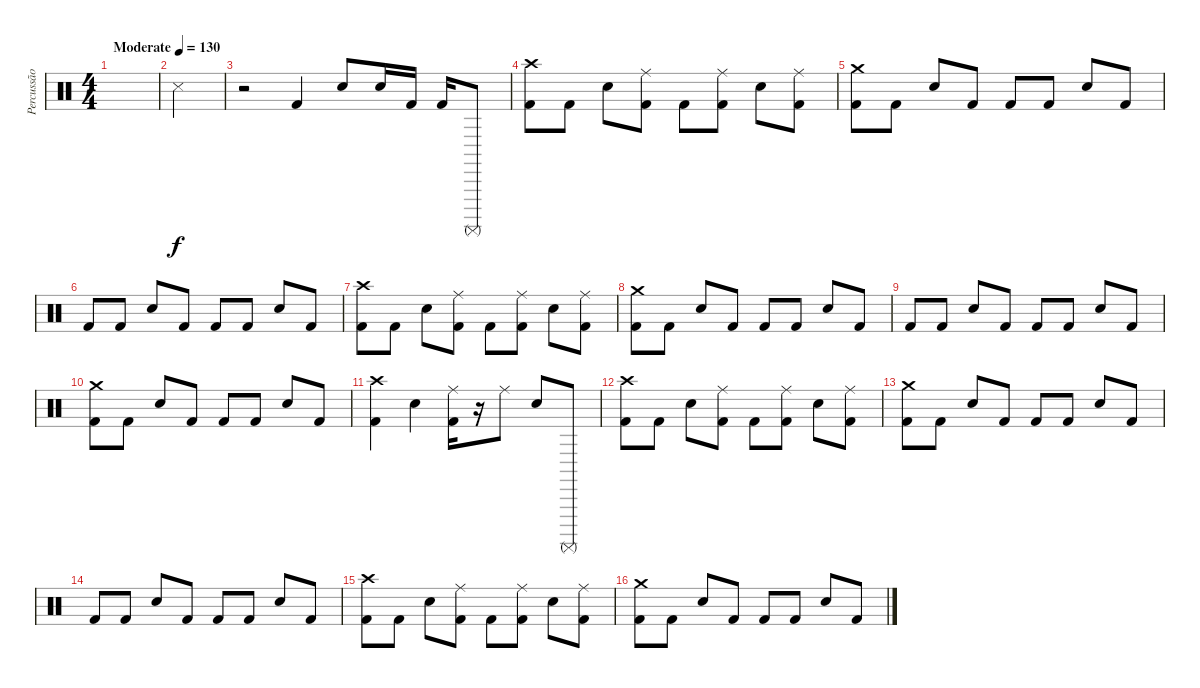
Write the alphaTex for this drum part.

\track ("Percussão" "Percussão") {instrument percussion}
\staff {score}
\articulation defaults
\ts (4 4)
\tempo (130 "Moderate")
\clef neutral
\ks c
|
"Snare (side stick) 3".4 |
r.2 "Kick (hit) 2".4 "Snare (hit) 2".8 "Snare (hit) 2".16 "Kick (hit) 2".16 "Kick (hit) 2".16 "Surdo (mute)".8 |
("Kick (hit) 2" "Crash high (hit)").8 "Kick (hit) 2".8 "Snare (hit) 2".8 ("Kick (hit) 2" "Ride (middle)").8 "Kick (hit) 2".8 ("Kick (hit) 2" "Ride (middle)").8 "Snare (hit) 2".8 ("Kick (hit) 2" "Ride (middle)").8 |
("Kick (hit) 2" "Crash medium (hit)").8 "Kick (hit) 2".8 "Snare (hit) 2".8 "Kick (hit) 2".8 "Kick (hit) 2".8 "Kick (hit) 2".8 "Snare (hit) 2".8 "Kick (hit) 2".8 |
"Kick (hit) 2".8 "Kick (hit) 2".8 "Snare (hit) 2".8 "Kick (hit) 2".8 "Kick (hit) 2".8 "Kick (hit) 2".8 "Snare (hit) 2".8 "Kick (hit) 2".8 |
("Kick (hit) 2" "Crash high (hit)").8 "Kick (hit) 2".8 "Snare (hit) 2".8 ("Kick (hit) 2" "Ride (middle)").8 "Kick (hit) 2".8 ("Kick (hit) 2" "Ride (middle)").8 "Snare (hit) 2".8 ("Kick (hit) 2" "Ride (middle)").8 |
("Kick (hit) 2" "Crash medium (hit)").8 "Kick (hit) 2".8 "Snare (hit) 2".8 "Kick (hit) 2".8 "Kick (hit) 2".8 "Kick (hit) 2".8 "Snare (hit) 2".8 "Kick (hit) 2".8 |
"Kick (hit) 2".8 "Kick (hit) 2".8 "Snare (hit) 2".8 "Kick (hit) 2".8 "Kick (hit) 2".8 "Kick (hit) 2".8 "Snare (hit) 2".8 "Kick (hit) 2".8 |
("Kick (hit) 2" "Crash medium (hit)").8 "Kick (hit) 2".8 "Snare (hit) 2".8 "Kick (hit) 2".8 "Kick (hit) 2".8 "Kick (hit) 2".8 "Snare (hit) 2".8 "Kick (hit) 2".8 |
("Kick (hit) 2" "Crash high (hit)").4 "Snare (hit) 2".4 ("Kick (hit) 2" "Ride (middle)").16 r.16 "Ride (middle)".8 "Snare (hit) 2".8 "Surdo (mute)".8 |
("Kick (hit) 2" "Crash high (hit)").8 "Kick (hit) 2".8 "Snare (hit) 2".8 ("Kick (hit) 2" "Ride (middle)").8 "Kick (hit) 2".8 ("Kick (hit) 2" "Ride (middle)").8 "Snare (hit) 2".8 ("Kick (hit) 2" "Ride (middle)").8 |
("Kick (hit) 2" "Crash medium (hit)").8 "Kick (hit) 2".8 "Snare (hit) 2".8 "Kick (hit) 2".8 "Kick (hit) 2".8 "Kick (hit) 2".8 "Snare (hit) 2".8 "Kick (hit) 2".8 |
"Kick (hit) 2".8 "Kick (hit) 2".8 "Snare (hit) 2".8 "Kick (hit) 2".8 "Kick (hit) 2".8 "Kick (hit) 2".8 "Snare (hit) 2".8 "Kick (hit) 2".8 |
("Kick (hit) 2" "Crash high (hit)").8 "Kick (hit) 2".8 "Snare (hit) 2".8 ("Kick (hit) 2" "Ride (middle)").8 "Kick (hit) 2".8 ("Kick (hit) 2" "Ride (middle)").8 "Snare (hit) 2".8 ("Kick (hit) 2" "Ride (middle)").8 |
("Kick (hit) 2" "Crash medium (hit)").8 "Kick (hit) 2".8 "Snare (hit) 2".8 "Kick (hit) 2".8 "Kick (hit) 2".8 "Kick (hit) 2".8 "Snare (hit) 2".8 "Kick (hit) 2".8
